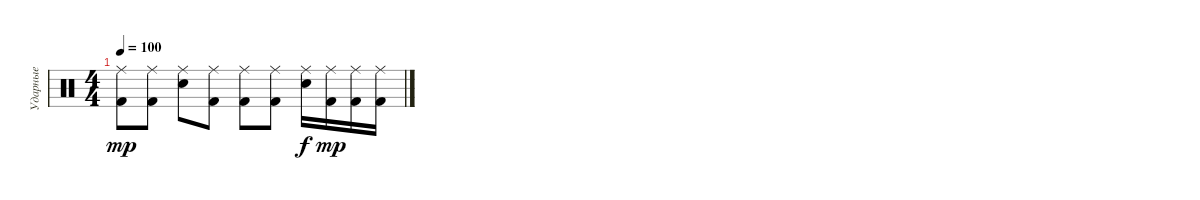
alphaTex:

\track ("Ударные" "Ударные") {instrument percussion}
\staff {score}
\articulation defaults
\ts (4 4)
\tempo 100
\clef neutral
\ks c
("Kick (hit) 2" "Ride (middle)").8{dy mp} ("Kick (hit) 2" "Ride (middle)").8 ("Electric Snare (hit)" "Ride (middle)").8 ("Kick (hit) 2" "Ride (middle)").8 ("Kick (hit) 2" "Ride (middle)").8 ("Kick (hit) 2" "Ride (middle)").8 ("Electric Snare (hit)" "Ride (middle)").16{dy f} ("Kick (hit) 2" "Ride (middle)").16{dy mp} ("Kick (hit) 2" "Ride (middle)").16 ("Kick (hit) 2" "Ride (middle)").16
